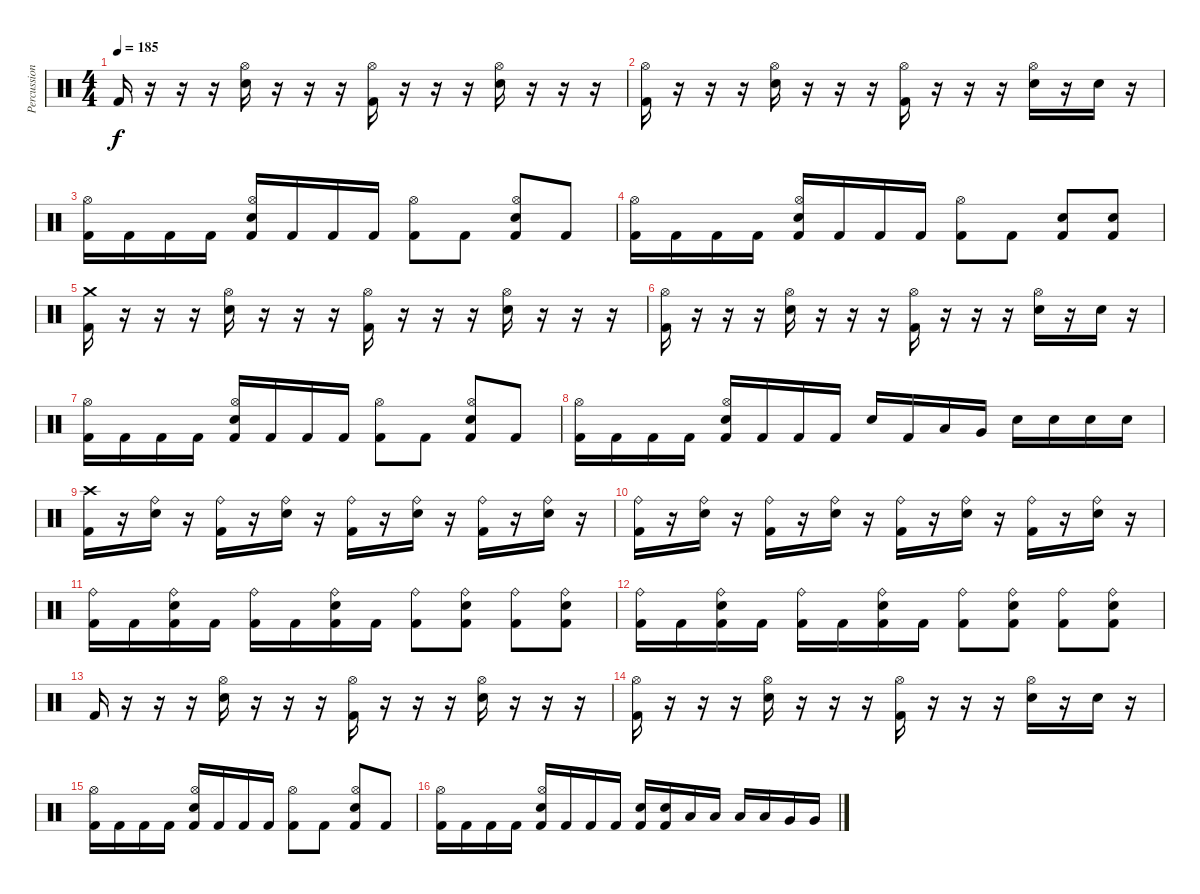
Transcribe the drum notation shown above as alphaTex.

\track ("Percussion" "Percussion") {instrument percussion}
\staff {score}
\articulation defaults
\ts (4 4)
\tempo 185
\clef neutral
\ks c "Kick (hit) 2".16{dy f}
r.16 r.16 r.16 ("Hi-Hat (open)" "Electric Snare (hit)").16 r.16 r.16 r.16 ("Hi-Hat (open)" "Kick (hit) 2").16 r.16 r.16 r.16 ("Hi-Hat (open)" "Electric Snare (hit)").16 r.16 r.16 r.16 |
("Hi-Hat (open)" "Kick (hit) 2").16 r.16 r.16 r.16 ("Hi-Hat (open)" "Electric Snare (hit)").16 r.16 r.16 r.16 ("Hi-Hat (open)" "Kick (hit) 2").16 r.16 r.16 r.16 ("Hi-Hat (open)" "Electric Snare (hit)").16 r.16 "Electric Snare (hit)".16 r.16 |
("Hi-Hat (open)" "Kick (hit) 2").16 "Kick (hit) 2".16 "Kick (hit) 2".16 "Kick (hit) 2".16 ("Hi-Hat (open)" "Electric Snare (hit)" "Kick (hit) 2").16 "Kick (hit) 2".16 "Kick (hit) 2".16 "Kick (hit) 2".16 ("Hi-Hat (open)" "Kick (hit) 2").8 "Kick (hit) 2".8 ("Hi-Hat (open)" "Electric Snare (hit)" "Kick (hit) 2").8 "Kick (hit) 2".8 |
("Hi-Hat (open)" "Kick (hit) 2").16 "Kick (hit) 2".16 "Kick (hit) 2".16 "Kick (hit) 2".16 ("Hi-Hat (open)" "Electric Snare (hit)" "Kick (hit) 2").16 "Kick (hit) 2".16 "Kick (hit) 2".16 "Kick (hit) 2".16 ("Hi-Hat (open)" "Kick (hit) 2").8 "Kick (hit) 2".8 ("Electric Snare (hit)" "Kick (hit) 2").8 ("Electric Snare (hit)" "Kick (hit) 2").8 |
("Crash medium (hit)" "Kick (hit) 2").16 r.16 r.16 r.16 ("Hi-Hat (open)" "Electric Snare (hit)").16 r.16 r.16 r.16 ("Hi-Hat (open)" "Kick (hit) 2").16 r.16 r.16 r.16 ("Hi-Hat (open)" "Electric Snare (hit)").16 r.16 r.16 r.16 |
("Hi-Hat (open)" "Kick (hit) 2").16 r.16 r.16 r.16 ("Hi-Hat (open)" "Electric Snare (hit)").16 r.16 r.16 r.16 ("Hi-Hat (open)" "Kick (hit) 2").16 r.16 r.16 r.16 ("Hi-Hat (open)" "Electric Snare (hit)").16 r.16 "Electric Snare (hit)".16 r.16 |
("Hi-Hat (open)" "Kick (hit) 2").16 "Kick (hit) 2".16 "Kick (hit) 2".16 "Kick (hit) 2".16 ("Hi-Hat (open)" "Electric Snare (hit)" "Kick (hit) 2").16 "Kick (hit) 2".16 "Kick (hit) 2".16 "Kick (hit) 2".16 ("Hi-Hat (open)" "Kick (hit) 2").8 "Kick (hit) 2".8 ("Hi-Hat (open)" "Electric Snare (hit)" "Kick (hit) 2").8 "Kick (hit) 2".8 |
("Hi-Hat (open)" "Kick (hit) 2").16 "Kick (hit) 2".16 "Kick (hit) 2".16 "Kick (hit) 2".16 ("Hi-Hat (open)" "Electric Snare (hit)" "Kick (hit) 2").16 "Kick (hit) 2".16 "Kick (hit) 2".16 "Kick (hit) 2".16 "Electric Snare (hit)".16 "Kick (hit) 2".16 "Low Tom (hit)".16 "Very Low Tom (hit)".16 "Electric Snare (hit)".16 "Electric Snare (hit)".16 "Electric Snare (hit)".16 "Electric Snare (hit)".16 |
("Crash high (hit)" "Kick (hit) 2").16 r.16 ("Ride (bell)" "Electric Snare (hit)").16 r.16 ("Ride (bell)" "Kick (hit) 2").16 r.16 ("Ride (bell)" "Electric Snare (hit)").16 r.16 ("Ride (bell)" "Kick (hit) 2").16 r.16 ("Ride (bell)" "Electric Snare (hit)").16 r.16 ("Ride (bell)" "Kick (hit) 2").16 r.16 ("Ride (bell)" "Electric Snare (hit)").16 r.16 |
("Ride (bell)" "Kick (hit) 2").16 r.16 ("Ride (bell)" "Electric Snare (hit)").16 r.16 ("Ride (bell)" "Kick (hit) 2").16 r.16 ("Ride (bell)" "Electric Snare (hit)").16 r.16 ("Ride (bell)" "Kick (hit) 2").16 r.16 ("Ride (bell)" "Electric Snare (hit)").16 r.16 ("Ride (bell)" "Kick (hit) 2").16 r.16 ("Ride (bell)" "Electric Snare (hit)").16 r.16 |
("Ride (bell)" "Kick (hit) 2").16 "Kick (hit) 2".16 ("Ride (bell)" "Electric Snare (hit)" "Kick (hit) 2").16 "Kick (hit) 2".16 ("Ride (bell)" "Kick (hit) 2").16 "Kick (hit) 2".16 ("Ride (bell)" "Electric Snare (hit)" "Kick (hit) 2").16 "Kick (hit) 2".16 ("Ride (bell)" "Kick (hit) 2").8 ("Ride (bell)" "Electric Snare (hit)" "Kick (hit) 2").8 ("Ride (bell)" "Kick (hit) 2").8 ("Ride (bell)" "Electric Snare (hit)" "Kick (hit) 2").8 |
("Ride (bell)" "Kick (hit) 2").16 "Kick (hit) 2".16 ("Ride (bell)" "Electric Snare (hit)" "Kick (hit) 2").16 "Kick (hit) 2".16 ("Ride (bell)" "Kick (hit) 2").16 "Kick (hit) 2".16 ("Ride (bell)" "Electric Snare (hit)" "Kick (hit) 2").16 "Kick (hit) 2".16 ("Ride (bell)" "Kick (hit) 2").8 ("Ride (bell)" "Electric Snare (hit)" "Kick (hit) 2").8 ("Ride (bell)" "Kick (hit) 2").8 ("Ride (bell)" "Electric Snare (hit)" "Kick (hit) 2").8 |
"Kick (hit) 2".16 r.16 r.16 r.16 ("Hi-Hat (open)" "Electric Snare (hit)").16 r.16 r.16 r.16 ("Hi-Hat (open)" "Kick (hit) 2").16 r.16 r.16 r.16 ("Hi-Hat (open)" "Electric Snare (hit)").16 r.16 r.16 r.16 |
("Hi-Hat (open)" "Kick (hit) 2").16 r.16 r.16 r.16 ("Hi-Hat (open)" "Electric Snare (hit)").16 r.16 r.16 r.16 ("Hi-Hat (open)" "Kick (hit) 2").16 r.16 r.16 r.16 ("Hi-Hat (open)" "Electric Snare (hit)").16 r.16 "Electric Snare (hit)".16 r.16 |
("Hi-Hat (open)" "Kick (hit) 2").16 "Kick (hit) 2".16 "Kick (hit) 2".16 "Kick (hit) 2".16 ("Hi-Hat (open)" "Electric Snare (hit)" "Kick (hit) 2").16 "Kick (hit) 2".16 "Kick (hit) 2".16 "Kick (hit) 2".16 ("Hi-Hat (open)" "Kick (hit) 2").8 "Kick (hit) 2".8 ("Hi-Hat (open)" "Electric Snare (hit)" "Kick (hit) 2").8 "Kick (hit) 2".8 |
("Hi-Hat (open)" "Kick (hit) 2").16 "Kick (hit) 2".16 "Kick (hit) 2".16 "Kick (hit) 2".16 ("Hi-Hat (open)" "Electric Snare (hit)" "Kick (hit) 2").16 "Kick (hit) 2".16 "Kick (hit) 2".16 "Kick (hit) 2".16 ("Electric Snare (hit)" "Kick (hit) 2").16 ("Electric Snare (hit)" "Kick (hit) 2").16 "Low Tom (hit)".16 "Low Tom (hit)".16 "Low Tom (hit)".16 "Low Tom (hit)".16 "Very Low Tom (hit)".16 "Very Low Tom (hit)".16
